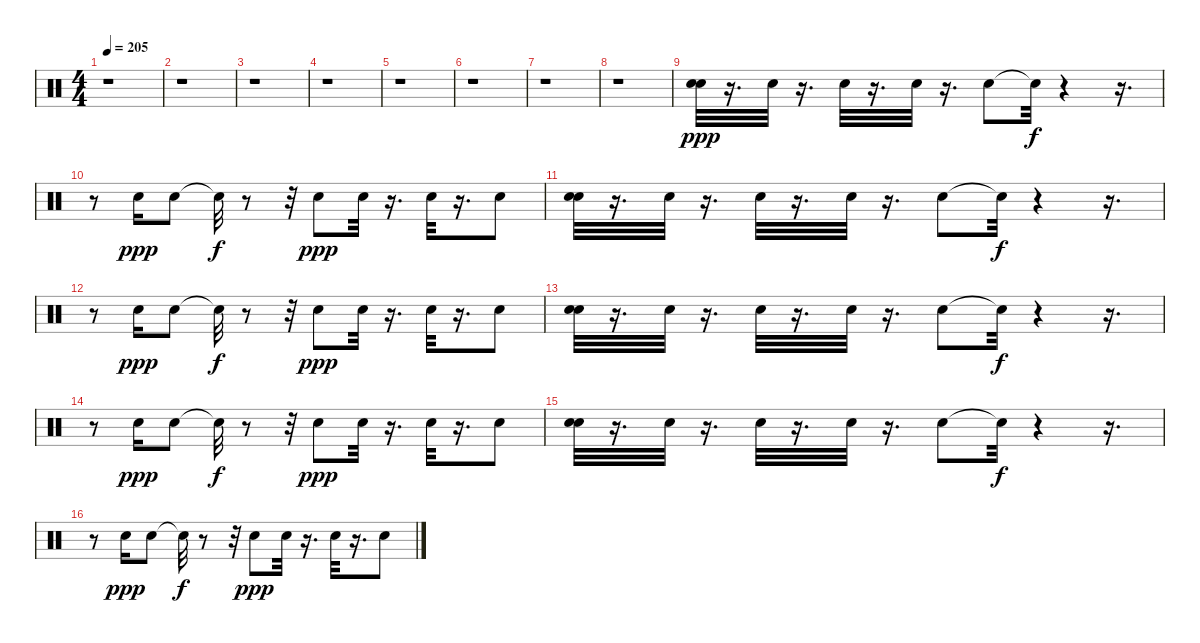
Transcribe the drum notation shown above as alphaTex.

\track "" {instrument percussion}
\staff {score}
\articulation defaults
\ts (4 4)
\tempo 205
\clef neutral
\ks c
r.1{dy ppp} |
r.1 |
r.1 |
r.1 |
r.1 |
r.1 |
r.1 |
r.1 |
("Electric Snare (hit)" "Electric Snare (hit)").32 r.16{d} "Electric Snare (hit)".32 r.16{d} "Electric Snare (hit)".32 r.16{d} "Electric Snare (hit)".32 r.16{d} "Electric Snare (hit)".8 "Snare (hit)"{t}.32{dy f} r.4 r.16{d} |
r.8 "Electric Snare (hit)".16{dy ppp} "Electric Snare (hit)".8 "Snare (hit)"{t}.32{dy f} r.8 r.32 "Electric Snare (hit)".8{dy ppp} "Electric Snare (hit)".32 r.16{d} "Electric Snare (hit)".32 r.16{d} "Electric Snare (hit)".8 |
("Electric Snare (hit)" "Electric Snare (hit)").32 r.16{d} "Electric Snare (hit)".32 r.16{d} "Electric Snare (hit)".32 r.16{d} "Electric Snare (hit)".32 r.16{d} "Electric Snare (hit)".8 "Snare (hit)"{t}.32{dy f} r.4 r.16{d} |
r.8 "Electric Snare (hit)".16{dy ppp} "Electric Snare (hit)".8 "Snare (hit)"{t}.32{dy f} r.8 r.32 "Electric Snare (hit)".8{dy ppp} "Electric Snare (hit)".32 r.16{d} "Electric Snare (hit)".32 r.16{d} "Electric Snare (hit)".8 |
("Electric Snare (hit)" "Electric Snare (hit)").32 r.16{d} "Electric Snare (hit)".32 r.16{d} "Electric Snare (hit)".32 r.16{d} "Electric Snare (hit)".32 r.16{d} "Electric Snare (hit)".8 "Snare (hit)"{t}.32{dy f} r.4 r.16{d} |
r.8 "Electric Snare (hit)".16{dy ppp} "Electric Snare (hit)".8 "Snare (hit)"{t}.32{dy f} r.8 r.32 "Electric Snare (hit)".8{dy ppp} "Electric Snare (hit)".32 r.16{d} "Electric Snare (hit)".32 r.16{d} "Electric Snare (hit)".8 |
("Electric Snare (hit)" "Electric Snare (hit)").32 r.16{d} "Electric Snare (hit)".32 r.16{d} "Electric Snare (hit)".32 r.16{d} "Electric Snare (hit)".32 r.16{d} "Electric Snare (hit)".8 "Snare (hit)"{t}.32{dy f} r.4 r.16{d} |
r.8 "Electric Snare (hit)".16{dy ppp} "Electric Snare (hit)".8 "Snare (hit)"{t}.32{dy f} r.8 r.32 "Electric Snare (hit)".8{dy ppp} "Electric Snare (hit)".32 r.16{d} "Electric Snare (hit)".32 r.16{d} "Electric Snare (hit)".8
